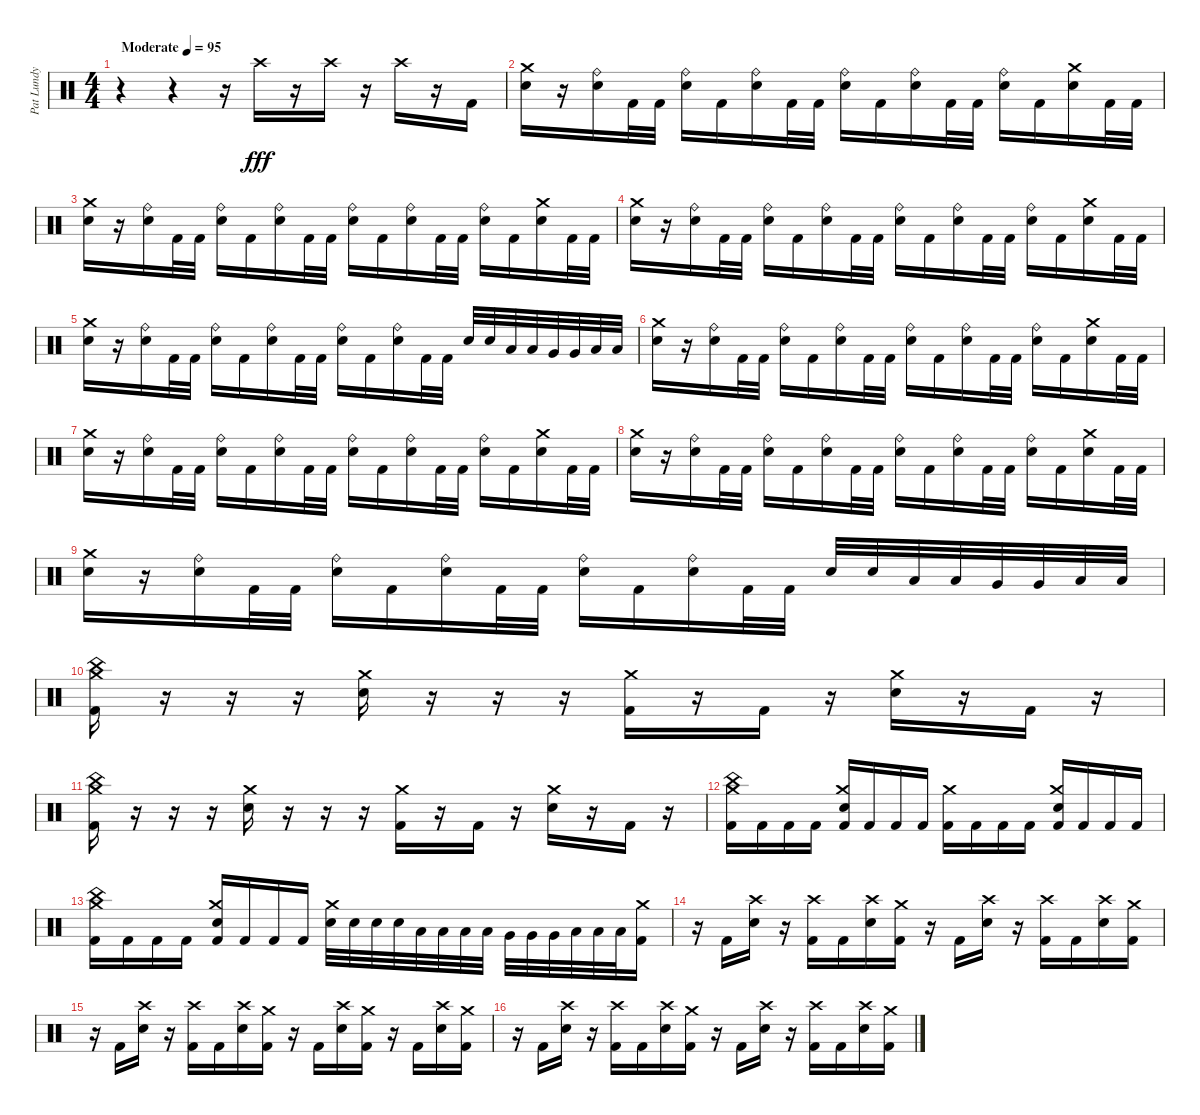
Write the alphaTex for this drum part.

\track ("Pat Lundy" "Pat Lundy") {instrument percussion}
\staff {score}
\articulation defaults
\ts (4 4)
\tempo (95 "Moderate")
\clef neutral
\ks c
r.4{dy fff} r.4 r.16 "Crash high (hit)".16 r.16 "Crash high (hit)".16 r.16 "Crash high (hit)".16 r.16 "Kick (hit) 2".16 |
("Crash medium (hit)" "Electric Snare (hit)").16 r.16 ("Ride (bell)" "Electric Snare (hit)").16 "Kick (hit) 2".32 "Kick (hit) 2".32 ("Ride (bell)" "Electric Snare (hit)").16 "Kick (hit) 2".16 ("Ride (bell)" "Electric Snare (hit)").16 "Kick (hit) 2".32 "Kick (hit) 2".32 ("Ride (bell)" "Electric Snare (hit)").16 "Kick (hit) 2".16 ("Ride (bell)" "Electric Snare (hit)").16 "Kick (hit) 2".32 "Kick (hit) 2".32 ("Ride (bell)" "Electric Snare (hit)").16 "Kick (hit) 2".16 ("Crash medium (hit)" "Electric Snare (hit)").16 "Kick (hit) 2".32 "Kick (hit) 2".32 |
("Crash medium (hit)" "Electric Snare (hit)").16 r.16 ("Ride (bell)" "Electric Snare (hit)").16 "Kick (hit) 2".32 "Kick (hit) 2".32 ("Ride (bell)" "Electric Snare (hit)").16 "Kick (hit) 2".16 ("Ride (bell)" "Electric Snare (hit)").16 "Kick (hit) 2".32 "Kick (hit) 2".32 ("Ride (bell)" "Electric Snare (hit)").16 "Kick (hit) 2".16 ("Ride (bell)" "Electric Snare (hit)").16 "Kick (hit) 2".32 "Kick (hit) 2".32 ("Ride (bell)" "Electric Snare (hit)").16 "Kick (hit) 2".16 ("Crash medium (hit)" "Electric Snare (hit)").16 "Kick (hit) 2".32 "Kick (hit) 2".32 |
("Crash medium (hit)" "Electric Snare (hit)").16 r.16 ("Ride (bell)" "Electric Snare (hit)").16 "Kick (hit) 2".32 "Kick (hit) 2".32 ("Ride (bell)" "Electric Snare (hit)").16 "Kick (hit) 2".16 ("Ride (bell)" "Electric Snare (hit)").16 "Kick (hit) 2".32 "Kick (hit) 2".32 ("Ride (bell)" "Electric Snare (hit)").16 "Kick (hit) 2".16 ("Ride (bell)" "Electric Snare (hit)").16 "Kick (hit) 2".32 "Kick (hit) 2".32 ("Ride (bell)" "Electric Snare (hit)").16 "Kick (hit) 2".16 ("Crash medium (hit)" "Electric Snare (hit)").16 "Kick (hit) 2".32 "Kick (hit) 2".32 |
("Crash medium (hit)" "Electric Snare (hit)").16 r.16 ("Ride (bell)" "Electric Snare (hit)").16 "Kick (hit) 2".32 "Kick (hit) 2".32 ("Ride (bell)" "Electric Snare (hit)").16 "Kick (hit) 2".16 ("Ride (bell)" "Electric Snare (hit)").16 "Kick (hit) 2".32 "Kick (hit) 2".32 ("Ride (bell)" "Electric Snare (hit)").16 "Kick (hit) 2".16 ("Ride (bell)" "Electric Snare (hit)").16 "Kick (hit) 2".32 "Kick (hit) 2".32 "Electric Snare (hit)".32 "Electric Snare (hit)".32 "Low Tom (hit)".32 "Low Tom (hit)".32 "Very Low Tom (hit)".32 "Very Low Tom (hit)".32 "Low Floor Tom (hit)".32 "Low Floor Tom (hit)".32 |
("Crash medium (hit)" "Electric Snare (hit)").16 r.16 ("Ride (bell)" "Electric Snare (hit)").16 "Kick (hit) 2".32 "Kick (hit) 2".32 ("Ride (bell)" "Electric Snare (hit)").16 "Kick (hit) 2".16 ("Ride (bell)" "Electric Snare (hit)").16 "Kick (hit) 2".32 "Kick (hit) 2".32 ("Ride (bell)" "Electric Snare (hit)").16 "Kick (hit) 2".16 ("Ride (bell)" "Electric Snare (hit)").16 "Kick (hit) 2".32 "Kick (hit) 2".32 ("Ride (bell)" "Electric Snare (hit)").16 "Kick (hit) 2".16 ("Crash medium (hit)" "Electric Snare (hit)").16 "Kick (hit) 2".32 "Kick (hit) 2".32 |
("Crash medium (hit)" "Electric Snare (hit)").16 r.16 ("Ride (bell)" "Electric Snare (hit)").16 "Kick (hit) 2".32 "Kick (hit) 2".32 ("Ride (bell)" "Electric Snare (hit)").16 "Kick (hit) 2".16 ("Ride (bell)" "Electric Snare (hit)").16 "Kick (hit) 2".32 "Kick (hit) 2".32 ("Ride (bell)" "Electric Snare (hit)").16 "Kick (hit) 2".16 ("Ride (bell)" "Electric Snare (hit)").16 "Kick (hit) 2".32 "Kick (hit) 2".32 ("Ride (bell)" "Electric Snare (hit)").16 "Kick (hit) 2".16 ("Crash medium (hit)" "Electric Snare (hit)").16 "Kick (hit) 2".32 "Kick (hit) 2".32 |
("Crash medium (hit)" "Electric Snare (hit)").16 r.16 ("Ride (bell)" "Electric Snare (hit)").16 "Kick (hit) 2".32 "Kick (hit) 2".32 ("Ride (bell)" "Electric Snare (hit)").16 "Kick (hit) 2".16 ("Ride (bell)" "Electric Snare (hit)").16 "Kick (hit) 2".32 "Kick (hit) 2".32 ("Ride (bell)" "Electric Snare (hit)").16 "Kick (hit) 2".16 ("Ride (bell)" "Electric Snare (hit)").16 "Kick (hit) 2".32 "Kick (hit) 2".32 ("Ride (bell)" "Electric Snare (hit)").16 "Kick (hit) 2".16 ("Crash medium (hit)" "Electric Snare (hit)").16 "Kick (hit) 2".32 "Kick (hit) 2".32 |
("Crash medium (hit)" "Electric Snare (hit)").16 r.16 ("Ride (bell)" "Electric Snare (hit)").16 "Kick (hit) 2".32 "Kick (hit) 2".32 ("Ride (bell)" "Electric Snare (hit)").16 "Kick (hit) 2".16 ("Ride (bell)" "Electric Snare (hit)").16 "Kick (hit) 2".32 "Kick (hit) 2".32 ("Ride (bell)" "Electric Snare (hit)").16 "Kick (hit) 2".16 ("Ride (bell)" "Electric Snare (hit)").16 "Kick (hit) 2".32 "Kick (hit) 2".32 "Electric Snare (hit)".32 "Electric Snare (hit)".32 "Low Tom (hit)".32 "Low Tom (hit)".32 "Very Low Tom (hit)".32 "Very Low Tom (hit)".32 "Low Floor Tom (hit)".32 "Low Floor Tom (hit)".32 |
("Crash medium (hit)" "China (hit)" "Kick (hit) 2").16 r.16 r.16 r.16 ("Crash medium (hit)" "Electric Snare (hit)").16 r.16 r.16 r.16 ("Crash medium (hit)" "Kick (hit) 2").16 r.16 "Kick (hit) 2".16 r.16 ("Crash medium (hit)" "Electric Snare (hit)").16 r.16 "Kick (hit) 2".16 r.16 |
("Crash medium (hit)" "China (hit)" "Kick (hit) 2").16 r.16 r.16 r.16 ("Crash medium (hit)" "Electric Snare (hit)").16 r.16 r.16 r.16 ("Crash medium (hit)" "Kick (hit) 2").16 r.16 "Kick (hit) 2".16 r.16 ("Crash medium (hit)" "Electric Snare (hit)").16 r.16 "Kick (hit) 2".16 r.16 |
("Crash medium (hit)" "China (hit)" "Kick (hit) 2").16 "Kick (hit) 2".16 "Kick (hit) 2".16 "Kick (hit) 2".16 ("Crash medium (hit)" "Electric Snare (hit)" "Kick (hit) 2").16 "Kick (hit) 2".16 "Kick (hit) 2".16 "Kick (hit) 2".16 ("Crash medium (hit)" "Kick (hit) 2").16 "Kick (hit) 2".16 "Kick (hit) 2".16 "Kick (hit) 2".16 ("Crash medium (hit)" "Electric Snare (hit)" "Kick (hit) 2").16 "Kick (hit) 2".16 "Kick (hit) 2".16 "Kick (hit) 2".16 |
("Crash medium (hit)" "China (hit)" "Kick (hit) 2").16 "Kick (hit) 2".16 "Kick (hit) 2".16 "Kick (hit) 2".16 ("Crash medium (hit)" "Electric Snare (hit)" "Kick (hit) 2").16 "Kick (hit) 2".16 "Kick (hit) 2".16 "Kick (hit) 2".16 ("Crash medium (hit)" "Electric Snare (hit)").32 "Electric Snare (hit)".32 "Electric Snare (hit)".32 "Electric Snare (hit)".32 "Low Tom (hit)".32 "Low Tom (hit)".32 "Low Tom (hit)".32 "Low Tom (hit)".32 "Very Low Tom (hit)".32 "Very Low Tom (hit)".32 "Very Low Tom (hit)".32 "Low Floor Tom (hit)".32 "Low Floor Tom (hit)".32 "Low Floor Tom (hit)".32 ("Crash medium (hit)" "Kick (hit) 2").16 |
r.16 "Kick (hit) 2".16 ("Crash high (hit)" "Electric Snare (hit)").16 r.16 ("Crash high (hit)" "Kick (hit) 2").16 "Kick (hit) 2".16 ("Crash high (hit)" "Electric Snare (hit)").16 ("Crash medium (hit)" "Kick (hit) 2").16 r.16 "Kick (hit) 2".16 ("Crash high (hit)" "Electric Snare (hit)").16 r.16 ("Crash high (hit)" "Kick (hit) 2").16 "Kick (hit) 2".16 ("Crash high (hit)" "Electric Snare (hit)").16 ("Crash medium (hit)" "Kick (hit) 2").16 |
r.16 "Kick (hit) 2".16 ("Crash high (hit)" "Electric Snare (hit)").16 r.16 ("Crash high (hit)" "Kick (hit) 2").16 "Kick (hit) 2".16 ("Crash high (hit)" "Electric Snare (hit)").16 ("Crash medium (hit)" "Kick (hit) 2").16 r.16 "Kick (hit) 2".16 ("Crash high (hit)" "Electric Snare (hit)").16 ("Crash medium (hit)" "Kick (hit) 2").16 r.16 "Kick (hit) 2".16 ("Crash high (hit)" "Electric Snare (hit)").16 ("Crash medium (hit)" "Kick (hit) 2").16 |
r.16 "Kick (hit) 2".16 ("Crash high (hit)" "Electric Snare (hit)").16 r.16 ("Crash high (hit)" "Kick (hit) 2").16 "Kick (hit) 2".16 ("Crash high (hit)" "Electric Snare (hit)").16 ("Crash medium (hit)" "Kick (hit) 2").16 r.16 "Kick (hit) 2".16 ("Crash high (hit)" "Electric Snare (hit)").16 r.16 ("Crash high (hit)" "Kick (hit) 2").16 "Kick (hit) 2".16 ("Crash high (hit)" "Electric Snare (hit)").16 ("Crash medium (hit)" "Kick (hit) 2").16
